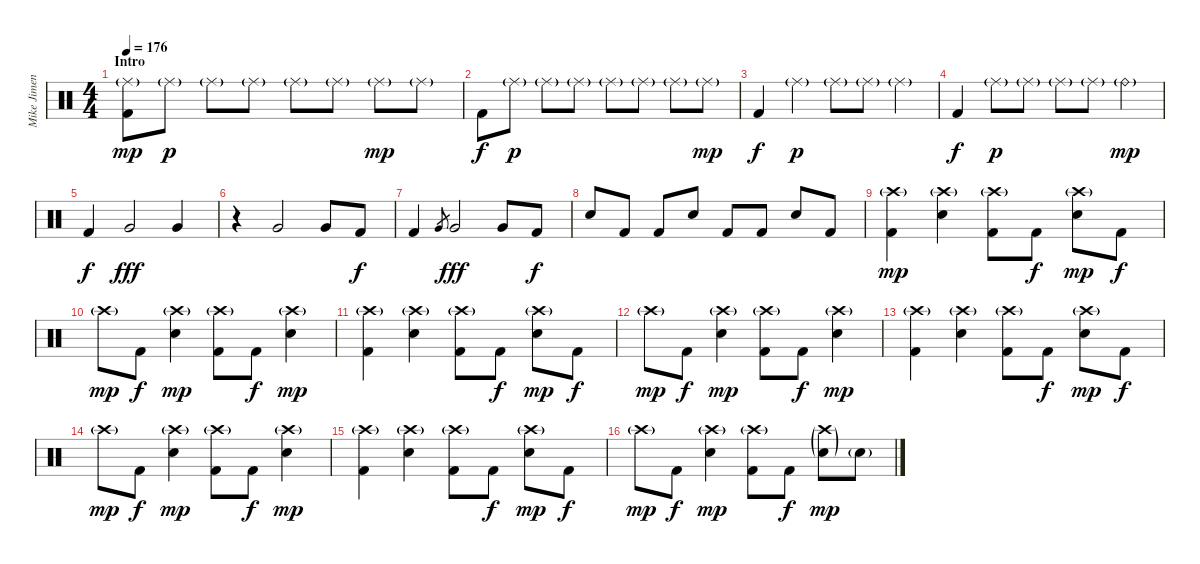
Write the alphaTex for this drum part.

\track ("Mike Jimenez" "Mike Jimen") {instrument percussion}
\staff {score}
\articulation defaults
\ts (4 4)
\section ("" "Intro")
\tempo 176
\clef neutral
\ks c
("Ride (middle)"{g} "Kick (hit) 2").8{dy mp} "Ride (middle)"{g}.8{dy p} "Ride (middle)"{g}.8 "Ride (middle)"{g}.8 "Ride (middle)"{g}.8 "Ride (middle)"{g}.8 "Ride (middle)"{g}.8{dy mp} "Ride (middle)"{g}.8 |
"Kick (hit) 2".8{dy f} "Ride (middle)"{g}.8{dy p} "Ride (middle)"{g}.8 "Ride (middle)"{g}.8 "Ride (middle)"{g}.8 "Ride (middle)"{g}.8 "Ride (middle)"{g}.8 "Ride (middle)"{g}.8{dy mp} |
"Kick (hit) 2".4{dy f} "Ride (middle)"{g}.4{dy p} "Ride (middle)"{g}.8 "Ride (middle)"{g}.8 "Ride (middle)"{g}.4 |
"Kick (hit) 2".4{dy f} "Ride (middle)"{g}.8{dy p} "Ride (middle)"{g}.8 "Ride (middle)"{g}.8 "Ride (middle)"{g}.8 "Ride (bell)"{g}.4{dy mp} |
"Kick (hit) 2".4{dy f} "Very Low Tom (hit)".2{dy fff} "Very Low Tom (hit)".4 |
r.4 "Very Low Tom (hit)".2 "Very Low Tom (hit)".8 "Kick (hit) 2".8{dy f} |
"Kick (hit) 2".4 "Very Low Tom (hit)".8{gr} "Very Low Tom (hit)".2{dy fff} "Very Low Tom (hit)".8 "Kick (hit) 2".8{dy f} |
"Electric Snare (hit)".8 "Kick (hit) 2".8 "Kick (hit) 2".8 "Electric Snare (hit)".8 "Kick (hit) 2".8 "Kick (hit) 2".8 "Electric Snare (hit)".8 "Kick (hit) 2".8 |
("Crash high (hit)"{g} "Kick (hit) 2").4{dy mp} ("Crash high (hit)"{g} "Electric Snare (hit)").4 ("Crash high (hit)"{g} "Kick (hit) 2").8 "Kick (hit) 2".8{dy f} ("Crash high (hit)"{g} "Electric Snare (hit)").8{dy mp} "Kick (hit) 2".8{dy f} |
"Crash high (hit)"{g}.8{dy mp} "Kick (hit) 2".8{dy f} ("Crash high (hit)"{g} "Electric Snare (hit)").4{dy mp} ("Crash high (hit)"{g} "Kick (hit) 2").8 "Kick (hit) 2".8{dy f} ("Crash high (hit)"{g} "Electric Snare (hit)").4{dy mp} |
("Crash high (hit)"{g} "Kick (hit) 2").4 ("Crash high (hit)"{g} "Electric Snare (hit)").4 ("Crash high (hit)"{g} "Kick (hit) 2").8 "Kick (hit) 2".8{dy f} ("Crash high (hit)"{g} "Electric Snare (hit)").8{dy mp} "Kick (hit) 2".8{dy f} |
"Crash high (hit)"{g}.8{dy mp} "Kick (hit) 2".8{dy f} ("Crash high (hit)"{g} "Electric Snare (hit)").4{dy mp} ("Crash high (hit)"{g} "Kick (hit) 2").8 "Kick (hit) 2".8{dy f} ("Crash high (hit)"{g} "Electric Snare (hit)").4{dy mp} |
("Crash high (hit)"{g} "Kick (hit) 2").4 ("Crash high (hit)"{g} "Electric Snare (hit)").4 ("Crash high (hit)"{g} "Kick (hit) 2").8 "Kick (hit) 2".8{dy f} ("Crash high (hit)"{g} "Electric Snare (hit)").8{dy mp} "Kick (hit) 2".8{dy f} |
"Crash high (hit)"{g}.8{dy mp} "Kick (hit) 2".8{dy f} ("Crash high (hit)"{g} "Electric Snare (hit)").4{dy mp} ("Crash high (hit)"{g} "Kick (hit) 2").8 "Kick (hit) 2".8{dy f} ("Crash high (hit)"{g} "Electric Snare (hit)").4{dy mp} |
("Crash high (hit)"{g} "Kick (hit) 2").4 ("Crash high (hit)"{g} "Electric Snare (hit)").4 ("Crash high (hit)"{g} "Kick (hit) 2").8 "Kick (hit) 2".8{dy f} ("Crash high (hit)"{g} "Electric Snare (hit)").8{dy mp} "Kick (hit) 2".8{dy f} |
"Crash high (hit)"{g}.8{dy mp} "Kick (hit) 2".8{dy f} ("Crash high (hit)"{g} "Electric Snare (hit)").4{dy mp} ("Crash high (hit)"{g} "Kick (hit) 2").8 "Kick (hit) 2".8{dy f} ("Crash high (hit)"{g} "Electric Snare (hit)"{g}).8{dy mp} "Electric Snare (hit)"{g}.8
